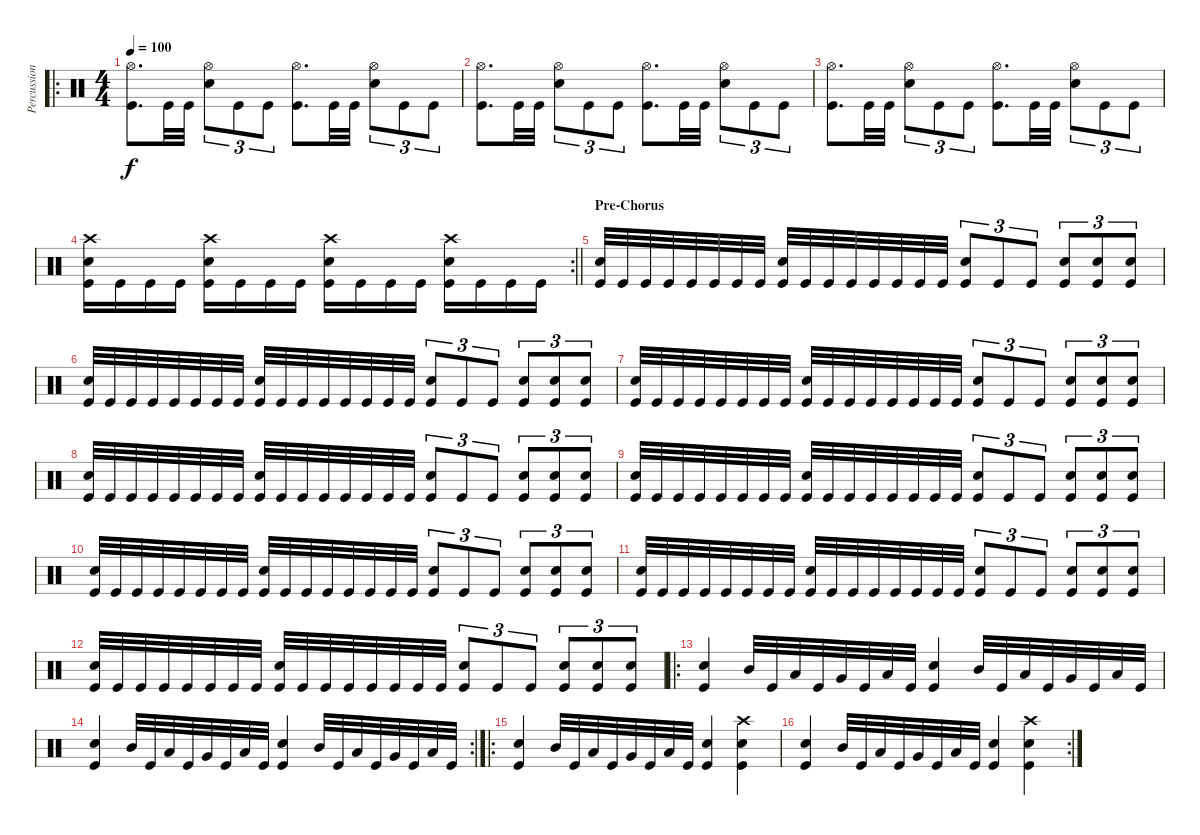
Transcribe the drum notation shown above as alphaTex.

\track ("Percussion" "Percussion") {instrument percussion}
\staff {score}
\articulation defaults
\ro
\ts (4 4)
\tempo 100
\clef neutral
\ks c
("Hi-Hat (open)" "Kick (hit)").8{d dy f} "Kick (hit)".32 "Kick (hit)".32 ("Hi-Hat (open)" "Electric Snare (hit)").8{tu (3 2)} "Kick (hit)".8{tu (3 2)} "Kick (hit)".8{tu (3 2)} ("Hi-Hat (open)" "Kick (hit)").8{d} "Kick (hit)".32 "Kick (hit)".32 ("Hi-Hat (open)" "Electric Snare (hit)").8{tu (3 2)} "Kick (hit)".8{tu (3 2)} "Kick (hit)".8{tu (3 2)} |
("Hi-Hat (open)" "Kick (hit)").8{d} "Kick (hit)".32 "Kick (hit)".32 ("Hi-Hat (open)" "Electric Snare (hit)").8{tu (3 2)} "Kick (hit)".8{tu (3 2)} "Kick (hit)".8{tu (3 2)} ("Hi-Hat (open)" "Kick (hit)").8{d} "Kick (hit)".32 "Kick (hit)".32 ("Hi-Hat (open)" "Electric Snare (hit)").8{tu (3 2)} "Kick (hit)".8{tu (3 2)} "Kick (hit)".8{tu (3 2)} |
("Hi-Hat (open)" "Kick (hit)").8{d} "Kick (hit)".32 "Kick (hit)".32 ("Hi-Hat (open)" "Electric Snare (hit)").8{tu (3 2)} "Kick (hit)".8{tu (3 2)} "Kick (hit)".8{tu (3 2)} ("Hi-Hat (open)" "Kick (hit)").8{d} "Kick (hit)".32 "Kick (hit)".32 ("Hi-Hat (open)" "Electric Snare (hit)").8{tu (3 2)} "Kick (hit)".8{tu (3 2)} "Kick (hit)".8{tu (3 2)} |
\rc 2
\barLineRight lightlight
("Crash high (hit)" "Electric Snare (hit)" "Kick (hit)").16 "Kick (hit)".16 "Kick (hit)".16 "Kick (hit)".16 ("Crash high (hit)" "Electric Snare (hit)" "Kick (hit)").16 "Kick (hit)".16 "Kick (hit)".16 "Kick (hit)".16 ("Crash high (hit)" "Electric Snare (hit)" "Kick (hit)").16 "Kick (hit)".16 "Kick (hit)".16 "Kick (hit)".16 ("Crash high (hit)" "Electric Snare (hit)" "Kick (hit)").16 "Kick (hit)".16 "Kick (hit)".16 "Kick (hit)".16 |
\section ("" "Pre-Chorus")
("Electric Snare (hit)" "Kick (hit)").32 "Kick (hit)".32 "Kick (hit)".32 "Kick (hit)".32 "Kick (hit)".32 "Kick (hit)".32 "Kick (hit)".32 "Kick (hit)".32 ("Electric Snare (hit)" "Kick (hit)").32 "Kick (hit)".32 "Kick (hit)".32 "Kick (hit)".32 "Kick (hit)".32 "Kick (hit)".32 "Kick (hit)".32 "Kick (hit)".32 ("Electric Snare (hit)" "Kick (hit)").8{tu (3 2)} "Kick (hit)".8{tu (3 2)} "Kick (hit)".8{tu (3 2)} ("Electric Snare (hit)" "Kick (hit)").8{tu (3 2)} ("Electric Snare (hit)" "Kick (hit)").8{tu (3 2)} ("Electric Snare (hit)" "Kick (hit)").8{tu (3 2)} |
("Electric Snare (hit)" "Kick (hit)").32 "Kick (hit)".32 "Kick (hit)".32 "Kick (hit)".32 "Kick (hit)".32 "Kick (hit)".32 "Kick (hit)".32 "Kick (hit)".32 ("Electric Snare (hit)" "Kick (hit)").32 "Kick (hit)".32 "Kick (hit)".32 "Kick (hit)".32 "Kick (hit)".32 "Kick (hit)".32 "Kick (hit)".32 "Kick (hit)".32 ("Electric Snare (hit)" "Kick (hit)").8{tu (3 2)} "Kick (hit)".8{tu (3 2)} "Kick (hit)".8{tu (3 2)} ("Electric Snare (hit)" "Kick (hit)").8{tu (3 2)} ("Electric Snare (hit)" "Kick (hit)").8{tu (3 2)} ("Electric Snare (hit)" "Kick (hit)").8{tu (3 2)} |
("Electric Snare (hit)" "Kick (hit)").32 "Kick (hit)".32 "Kick (hit)".32 "Kick (hit)".32 "Kick (hit)".32 "Kick (hit)".32 "Kick (hit)".32 "Kick (hit)".32 ("Electric Snare (hit)" "Kick (hit)").32 "Kick (hit)".32 "Kick (hit)".32 "Kick (hit)".32 "Kick (hit)".32 "Kick (hit)".32 "Kick (hit)".32 "Kick (hit)".32 ("Electric Snare (hit)" "Kick (hit)").8{tu (3 2)} "Kick (hit)".8{tu (3 2)} "Kick (hit)".8{tu (3 2)} ("Electric Snare (hit)" "Kick (hit)").8{tu (3 2)} ("Electric Snare (hit)" "Kick (hit)").8{tu (3 2)} ("Electric Snare (hit)" "Kick (hit)").8{tu (3 2)} |
("Electric Snare (hit)" "Kick (hit)").32 "Kick (hit)".32 "Kick (hit)".32 "Kick (hit)".32 "Kick (hit)".32 "Kick (hit)".32 "Kick (hit)".32 "Kick (hit)".32 ("Electric Snare (hit)" "Kick (hit)").32 "Kick (hit)".32 "Kick (hit)".32 "Kick (hit)".32 "Kick (hit)".32 "Kick (hit)".32 "Kick (hit)".32 "Kick (hit)".32 ("Electric Snare (hit)" "Kick (hit)").8{tu (3 2)} "Kick (hit)".8{tu (3 2)} "Kick (hit)".8{tu (3 2)} ("Electric Snare (hit)" "Kick (hit)").8{tu (3 2)} ("Electric Snare (hit)" "Kick (hit)").8{tu (3 2)} ("Electric Snare (hit)" "Kick (hit)").8{tu (3 2)} |
("Electric Snare (hit)" "Kick (hit)").32 "Kick (hit)".32 "Kick (hit)".32 "Kick (hit)".32 "Kick (hit)".32 "Kick (hit)".32 "Kick (hit)".32 "Kick (hit)".32 ("Electric Snare (hit)" "Kick (hit)").32 "Kick (hit)".32 "Kick (hit)".32 "Kick (hit)".32 "Kick (hit)".32 "Kick (hit)".32 "Kick (hit)".32 "Kick (hit)".32 ("Electric Snare (hit)" "Kick (hit)").8{tu (3 2)} "Kick (hit)".8{tu (3 2)} "Kick (hit)".8{tu (3 2)} ("Electric Snare (hit)" "Kick (hit)").8{tu (3 2)} ("Electric Snare (hit)" "Kick (hit)").8{tu (3 2)} ("Electric Snare (hit)" "Kick (hit)").8{tu (3 2)} |
("Electric Snare (hit)" "Kick (hit)").32 "Kick (hit)".32 "Kick (hit)".32 "Kick (hit)".32 "Kick (hit)".32 "Kick (hit)".32 "Kick (hit)".32 "Kick (hit)".32 ("Electric Snare (hit)" "Kick (hit)").32 "Kick (hit)".32 "Kick (hit)".32 "Kick (hit)".32 "Kick (hit)".32 "Kick (hit)".32 "Kick (hit)".32 "Kick (hit)".32 ("Electric Snare (hit)" "Kick (hit)").8{tu (3 2)} "Kick (hit)".8{tu (3 2)} "Kick (hit)".8{tu (3 2)} ("Electric Snare (hit)" "Kick (hit)").8{tu (3 2)} ("Electric Snare (hit)" "Kick (hit)").8{tu (3 2)} ("Electric Snare (hit)" "Kick (hit)").8{tu (3 2)} |
("Electric Snare (hit)" "Kick (hit)").32 "Kick (hit)".32 "Kick (hit)".32 "Kick (hit)".32 "Kick (hit)".32 "Kick (hit)".32 "Kick (hit)".32 "Kick (hit)".32 ("Electric Snare (hit)" "Kick (hit)").32 "Kick (hit)".32 "Kick (hit)".32 "Kick (hit)".32 "Kick (hit)".32 "Kick (hit)".32 "Kick (hit)".32 "Kick (hit)".32 ("Electric Snare (hit)" "Kick (hit)").8{tu (3 2)} "Kick (hit)".8{tu (3 2)} "Kick (hit)".8{tu (3 2)} ("Electric Snare (hit)" "Kick (hit)").8{tu (3 2)} ("Electric Snare (hit)" "Kick (hit)").8{tu (3 2)} ("Electric Snare (hit)" "Kick (hit)").8{tu (3 2)} |
("Electric Snare (hit)" "Kick (hit)").32 "Kick (hit)".32 "Kick (hit)".32 "Kick (hit)".32 "Kick (hit)".32 "Kick (hit)".32 "Kick (hit)".32 "Kick (hit)".32 ("Electric Snare (hit)" "Kick (hit)").32 "Kick (hit)".32 "Kick (hit)".32 "Kick (hit)".32 "Kick (hit)".32 "Kick (hit)".32 "Kick (hit)".32 "Kick (hit)".32 ("Electric Snare (hit)" "Kick (hit)").8{tu (3 2)} "Kick (hit)".8{tu (3 2)} "Kick (hit)".8{tu (3 2)} ("Electric Snare (hit)" "Kick (hit)").8{tu (3 2)} ("Electric Snare (hit)" "Kick (hit)").8{tu (3 2)} ("Electric Snare (hit)" "Kick (hit)").8{tu (3 2)} |
\ro
("Electric Snare (hit)" "Kick (hit)").4 "Mid Tom (hit)".32 "Kick (hit)".32 "Low Tom (hit)".32 "Kick (hit)".32 "Very Low Tom (hit)".32 "Kick (hit)".32 "Low Floor Tom (hit)".32 "Kick (hit)".32 ("Electric Snare (hit)" "Kick (hit)").4 "Mid Tom (hit)".32 "Kick (hit)".32 "Low Tom (hit)".32 "Kick (hit)".32 "Very Low Tom (hit)".32 "Kick (hit)".32 "Low Floor Tom (hit)".32 "Kick (hit)".32 |
\rc 2
("Electric Snare (hit)" "Kick (hit)").4 "Mid Tom (hit)".32 "Kick (hit)".32 "Low Tom (hit)".32 "Kick (hit)".32 "Very Low Tom (hit)".32 "Kick (hit)".32 "Low Floor Tom (hit)".32 "Kick (hit)".32 ("Electric Snare (hit)" "Kick (hit)").4 "Mid Tom (hit)".32 "Kick (hit)".32 "Low Tom (hit)".32 "Kick (hit)".32 "Very Low Tom (hit)".32 "Kick (hit)".32 "Low Floor Tom (hit)".32 "Kick (hit)".32 |
\ro
("Electric Snare (hit)" "Kick (hit)").4 "Mid Tom (hit)".32 "Kick (hit)".32 "Low Tom (hit)".32 "Kick (hit)".32 "Very Low Tom (hit)".32 "Kick (hit)".32 "Low Floor Tom (hit)".32 "Kick (hit)".32 ("Electric Snare (hit)" "Kick (hit)").4 ("Crash high (hit)" "Electric Snare (hit)" "Kick (hit)").4 |
\rc 2
("Electric Snare (hit)" "Kick (hit)").4 "Mid Tom (hit)".32 "Kick (hit)".32 "Low Tom (hit)".32 "Kick (hit)".32 "Very Low Tom (hit)".32 "Kick (hit)".32 "Low Floor Tom (hit)".32 "Kick (hit)".32 ("Electric Snare (hit)" "Kick (hit)").4 ("Crash high (hit)" "Electric Snare (hit)" "Kick (hit)").4
